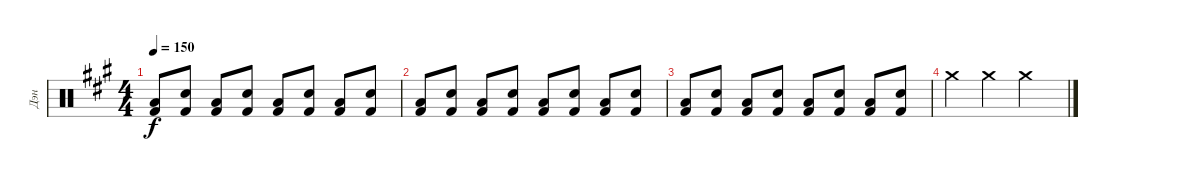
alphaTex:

\track ("Дэн" "Дэн") {instrument percussion}
\staff {score}
\articulation defaults
\ts (4 4)
\tempo 150
\clef neutral
\ks f#minor
("Low Tom (hit)" "Kick (hit) 2").8{dy f} ("Snare (hit) 2" "Kick (hit) 2").8 ("Low Tom (hit)" "Kick (hit) 2").8 ("Snare (hit) 2" "Kick (hit) 2").8 ("Low Tom (hit)" "Kick (hit) 2").8 ("Snare (hit) 2" "Kick (hit) 2").8 ("Low Tom (hit)" "Kick (hit) 2").8 ("Snare (hit) 2" "Kick (hit) 2").8 |
("Low Tom (hit)" "Kick (hit) 2").8 ("Snare (hit) 2" "Kick (hit) 2").8 ("Low Tom (hit)" "Kick (hit) 2").8 ("Snare (hit) 2" "Kick (hit) 2").8 ("Low Tom (hit)" "Kick (hit) 2").8 ("Snare (hit) 2" "Kick (hit) 2").8 ("Low Tom (hit)" "Kick (hit) 2").8 ("Snare (hit) 2" "Kick (hit) 2").8 |
("Low Tom (hit)" "Kick (hit) 2").8 ("Snare (hit) 2" "Kick (hit) 2").8 ("Low Tom (hit)" "Kick (hit) 2").8 ("Snare (hit) 2" "Kick (hit) 2").8 ("Low Tom (hit)" "Kick (hit) 2").8 ("Snare (hit) 2" "Kick (hit) 2").8 ("Low Tom (hit)" "Kick (hit) 2").8 ("Snare (hit) 2" "Kick (hit) 2").8 |
"Crash medium (hit)".4 "Crash medium (hit)".4 "Crash medium (hit)".2
